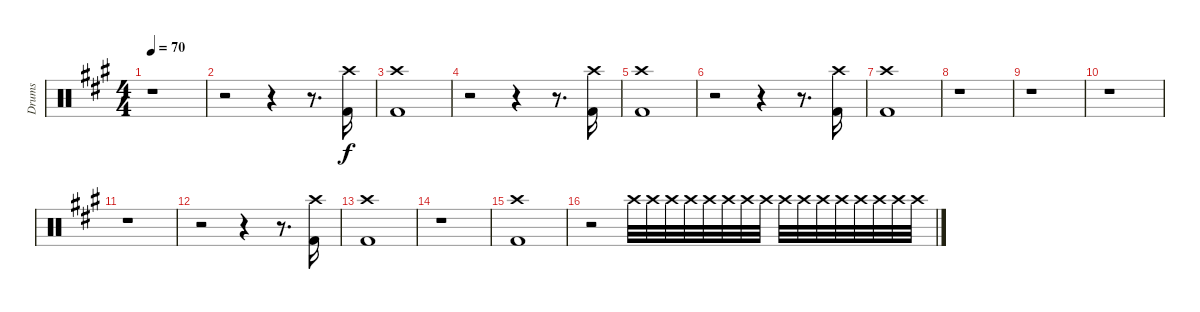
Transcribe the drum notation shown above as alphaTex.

\track ("Drums" "Drums") {instrument percussion}
\staff {score}
\articulation defaults
\ts (4 4)
\tempo 70
\clef neutral
\ks a
r.1{dy f} |
r.2 r.4 r.8{d} ("Crash high (hit)" "Kick (hit) 2").16 |
("Crash high (hit)" "Kick (hit) 2").1 |
r.2 r.4 r.8{d} ("Crash high (hit)" "Kick (hit) 2").16 |
("Crash high (hit)" "Kick (hit) 2").1 |
r.2 r.4 r.8{d} ("Crash high (hit)" "Kick (hit) 2").16 |
("Crash high (hit)" "Kick (hit) 2").1 |
r.1 |
r.1 |
r.1 |
r.1 |
r.2 r.4 r.8{d} ("Crash high (hit)" "Kick (hit) 2").16 |
("Crash high (hit)" "Kick (hit) 2").1 |
r.1 |
("Crash high (hit)" "Kick (hit) 2").1 |
r.2 "Crash high (hit)".32 "Crash high (hit)".32 "Crash high (hit)".32 "Crash high (hit)".32 "Crash high (hit)".32 "Crash high (hit)".32 "Crash high (hit)".32 "Crash high (hit)".32 "Crash high (hit)".32 "Crash high (hit)".32 "Crash high (hit)".32 "Crash high (hit)".32 "Crash high (hit)".32 "Crash high (hit)".32 "Crash high (hit)".32 "Crash high (hit)".32
